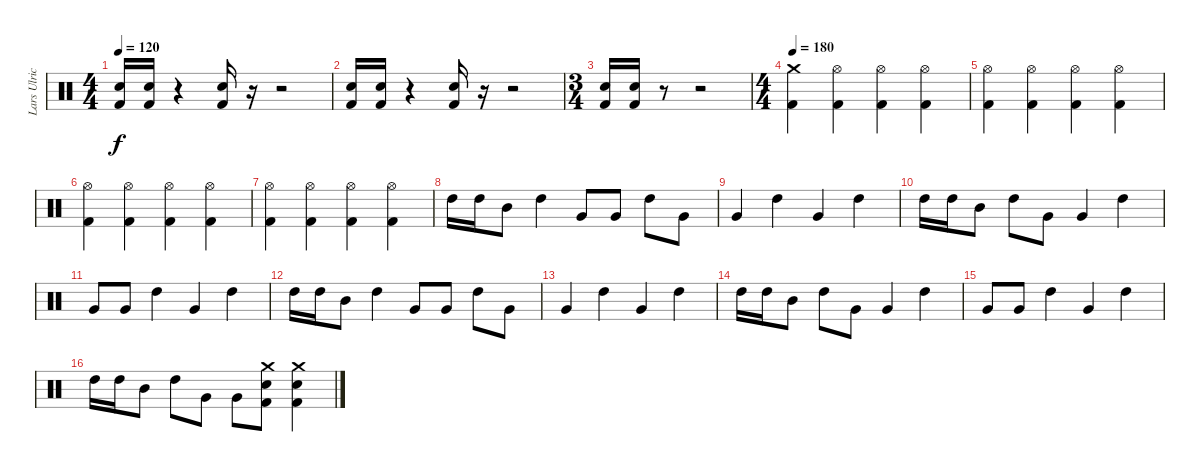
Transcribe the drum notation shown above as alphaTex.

\track ("Lars Ulrich" "Lars Ulric") {instrument percussion}
\staff {score}
\articulation defaults
\ts (4 4)
\tempo 120
\clef neutral
\ks c
("Electric Snare (hit)" "Kick (hit) 2").16{dy f} ("Electric Snare (hit)" "Kick (hit) 2").16 r.4 ("Electric Snare (hit)" "Kick (hit) 2").16 r.16 r.2 |
("Electric Snare (hit)" "Kick (hit) 2").16 ("Electric Snare (hit)" "Kick (hit) 2").16 r.4 ("Electric Snare (hit)" "Kick (hit) 2").16 r.16 r.2 |
\ts (3 4)
("Electric Snare (hit)" "Kick (hit) 2").16 ("Electric Snare (hit)" "Kick (hit) 2").16 r.8 r.2 |
\ts (4 4)
\tempo 180
("Crash medium (hit)" "Kick (hit) 2").4 ("Hi-Hat (open)" "Kick (hit) 2").4 ("Hi-Hat (open)" "Kick (hit) 2").4 ("Hi-Hat (open)" "Kick (hit) 2").4 |
("Hi-Hat (open)" "Kick (hit) 2").4 ("Hi-Hat (open)" "Kick (hit) 2").4 ("Hi-Hat (open)" "Kick (hit) 2").4 ("Hi-Hat (open)" "Kick (hit) 2").4 |
("Hi-Hat (open)" "Kick (hit) 2").4 ("Hi-Hat (open)" "Kick (hit) 2").4 ("Hi-Hat (open)" "Kick (hit) 2").4 ("Hi-Hat (open)" "Kick (hit) 2").4 |
("Hi-Hat (open)" "Kick (hit) 2").4 ("Hi-Hat (open)" "Kick (hit) 2").4 ("Hi-Hat (open)" "Kick (hit) 2").4 ("Hi-Hat (open)" "Kick (hit) 2").4 |
"High Tom (hit)".16 "High Tom (hit)".16 "Mid Tom (hit)".8 "High Tom (hit)".4 "Very Low Tom (hit)".8 "Very Low Tom (hit)".8 "High Tom (hit)".8 "Very Low Tom (hit)".8 |
"Very Low Tom (hit)".4 "High Tom (hit)".4 "Very Low Tom (hit)".4 "High Tom (hit)".4 |
"High Tom (hit)".16 "High Tom (hit)".16 "Mid Tom (hit)".8 "High Tom (hit)".8 "Very Low Tom (hit)".8 "Very Low Tom (hit)".4 "High Tom (hit)".4 |
"Very Low Tom (hit)".8 "Very Low Tom (hit)".8 "High Tom (hit)".4 "Very Low Tom (hit)".4 "High Tom (hit)".4 |
"High Tom (hit)".16 "High Tom (hit)".16 "Mid Tom (hit)".8 "High Tom (hit)".4 "Very Low Tom (hit)".8 "Very Low Tom (hit)".8 "High Tom (hit)".8 "Very Low Tom (hit)".8 |
"Very Low Tom (hit)".4 "High Tom (hit)".4 "Very Low Tom (hit)".4 "High Tom (hit)".4 |
"High Tom (hit)".16 "High Tom (hit)".16 "Mid Tom (hit)".8 "High Tom (hit)".8 "Very Low Tom (hit)".8 "Very Low Tom (hit)".4 "High Tom (hit)".4 |
"Very Low Tom (hit)".8 "Very Low Tom (hit)".8 "High Tom (hit)".4 "Very Low Tom (hit)".4 "High Tom (hit)".4 |
"High Tom (hit)".16 "High Tom (hit)".16 "Mid Tom (hit)".8 "High Tom (hit)".8 "Very Low Tom (hit)".8 "Very Low Tom (hit)".8 ("Crash medium (hit)" "Electric Snare (hit)" "Kick (hit) 2").8 ("Crash medium (hit)" "Electric Snare (hit)" "Kick (hit) 2").4
